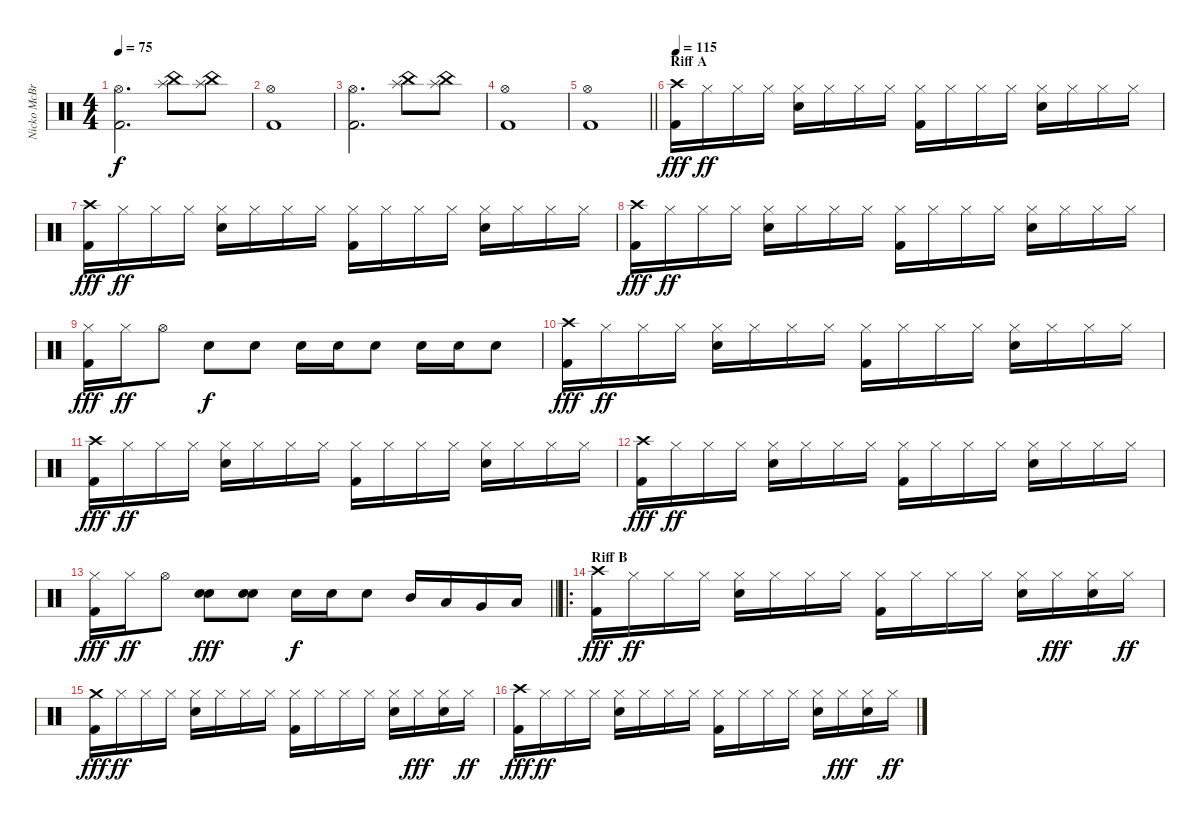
\track ("Nicko McBrain" "Nicko McBr") {instrument percussion}
\staff {score}
\articulation defaults
\ts (4 4)
\tempo 75
\clef neutral
\ks c
("Kick (hit) 2" "Hi-Hat (open)").2{d dy f} ("China (hit)" "Splash (hit)").8 ("China (hit)" "Splash (hit)").8 |
("Kick (hit) 2" "Hi-Hat (open)").1 |
("Kick (hit) 2" "Hi-Hat (open)").2{d} ("China (hit)" "Splash (hit)").8 ("China (hit)" "Splash (hit)").8 |
("Kick (hit) 2" "Hi-Hat (open)").1 |
\barLineRight lightlight
("Kick (hit) 2" "Hi-Hat (open)").1 |
\section ("" "Riff A")
\tempo 115
("Kick (hit) 2" "Crash high (hit)").16{dy fff} "Hi-Hat (closed)".16{dy ff} "Hi-Hat (closed)".16 "Hi-Hat (closed)".16 ("Snare (hit) 2" "Hi-Hat (closed)").16 "Hi-Hat (closed)".16 "Hi-Hat (closed)".16 "Hi-Hat (closed)".16 ("Kick (hit) 2" "Hi-Hat (closed)").16 "Hi-Hat (closed)".16 "Hi-Hat (closed)".16 "Hi-Hat (closed)".16 ("Snare (hit) 2" "Hi-Hat (closed)").16 "Hi-Hat (closed)".16 "Hi-Hat (closed)".16 "Hi-Hat (closed)".16 |
("Kick (hit) 2" "Crash high (hit)").16{dy fff} "Hi-Hat (closed)".16{dy ff} "Hi-Hat (closed)".16 "Hi-Hat (closed)".16 ("Snare (hit) 2" "Hi-Hat (closed)").16 "Hi-Hat (closed)".16 "Hi-Hat (closed)".16 "Hi-Hat (closed)".16 ("Kick (hit) 2" "Hi-Hat (closed)").16 "Hi-Hat (closed)".16 "Hi-Hat (closed)".16 "Hi-Hat (closed)".16 ("Snare (hit) 2" "Hi-Hat (closed)").16 "Hi-Hat (closed)".16 "Hi-Hat (closed)".16 "Hi-Hat (closed)".16 |
("Kick (hit) 2" "Crash high (hit)").16{dy fff} "Hi-Hat (closed)".16{dy ff} "Hi-Hat (closed)".16 "Hi-Hat (closed)".16 ("Snare (hit) 2" "Hi-Hat (closed)").16 "Hi-Hat (closed)".16 "Hi-Hat (closed)".16 "Hi-Hat (closed)".16 ("Kick (hit) 2" "Hi-Hat (closed)").16 "Hi-Hat (closed)".16 "Hi-Hat (closed)".16 "Hi-Hat (closed)".16 ("Snare (hit) 2" "Hi-Hat (closed)").16 "Hi-Hat (closed)".16 "Hi-Hat (closed)".16 "Hi-Hat (closed)".16 |
("Kick (hit) 2" "Hi-Hat (closed)").16{dy fff} "Hi-Hat (closed)".16{dy ff} "Hi-Hat (open)".8 "Snare (hit) 2".8{dy f} "Snare (hit) 2".8 "Snare (hit) 2".16 "Snare (hit) 2".16 "Snare (hit) 2".8 "Snare (hit) 2".16 "Snare (hit) 2".16 "Snare (hit) 2".8 |
("Kick (hit) 2" "Crash high (hit)").16{dy fff} "Hi-Hat (closed)".16{dy ff} "Hi-Hat (closed)".16 "Hi-Hat (closed)".16 ("Snare (hit) 2" "Hi-Hat (closed)").16 "Hi-Hat (closed)".16 "Hi-Hat (closed)".16 "Hi-Hat (closed)".16 ("Kick (hit) 2" "Hi-Hat (closed)").16 "Hi-Hat (closed)".16 "Hi-Hat (closed)".16 "Hi-Hat (closed)".16 ("Snare (hit) 2" "Hi-Hat (closed)").16 "Hi-Hat (closed)".16 "Hi-Hat (closed)".16 "Hi-Hat (closed)".16 |
("Kick (hit) 2" "Crash high (hit)").16{dy fff} "Hi-Hat (closed)".16{dy ff} "Hi-Hat (closed)".16 "Hi-Hat (closed)".16 ("Snare (hit) 2" "Hi-Hat (closed)").16 "Hi-Hat (closed)".16 "Hi-Hat (closed)".16 "Hi-Hat (closed)".16 ("Kick (hit) 2" "Hi-Hat (closed)").16 "Hi-Hat (closed)".16 "Hi-Hat (closed)".16 "Hi-Hat (closed)".16 ("Snare (hit) 2" "Hi-Hat (closed)").16 "Hi-Hat (closed)".16 "Hi-Hat (closed)".16 "Hi-Hat (closed)".16 |
("Kick (hit) 2" "Crash high (hit)").16{dy fff} "Hi-Hat (closed)".16{dy ff} "Hi-Hat (closed)".16 "Hi-Hat (closed)".16 ("Snare (hit) 2" "Hi-Hat (closed)").16 "Hi-Hat (closed)".16 "Hi-Hat (closed)".16 "Hi-Hat (closed)".16 ("Kick (hit) 2" "Hi-Hat (closed)").16 "Hi-Hat (closed)".16 "Hi-Hat (closed)".16 "Hi-Hat (closed)".16 ("Snare (hit) 2" "Hi-Hat (closed)").16 "Hi-Hat (closed)".16 "Hi-Hat (closed)".16 "Hi-Hat (closed)".16 |
\barLineRight lightlight
("Kick (hit) 2" "Hi-Hat (closed)").16{dy fff} "Hi-Hat (closed)".16{dy ff} "Hi-Hat (open)".8 ("Snare (hit) 2" "Electric Snare (hit)").8{dy fff} ("Snare (hit) 2" "Electric Snare (hit)").8 "Snare (hit) 2".16{dy f} "Snare (hit) 2".16 "Snare (hit) 2".8 "Mid Tom (hit)".16 "Low Tom (hit)".16 "Very Low Tom (hit)".16 "Low Floor Tom (hit)".16 |
\ro
\section ("" "Riff B")
("Kick (hit) 2" "Crash high (hit)").16{dy fff} "Hi-Hat (closed)".16{dy ff} "Hi-Hat (closed)".16 "Hi-Hat (closed)".16 ("Snare (hit) 2" "Hi-Hat (closed)").16 "Hi-Hat (closed)".16 "Hi-Hat (closed)".16 "Hi-Hat (closed)".16 ("Kick (hit) 2" "Hi-Hat (closed)").16 "Hi-Hat (closed)".16 "Hi-Hat (closed)".16 "Hi-Hat (closed)".16 ("Snare (hit) 2" "Hi-Hat (closed)").16 "Hi-Hat (closed)".16{dy fff} ("Snare (hit) 2" "Hi-Hat (closed)").16 "Hi-Hat (closed)".16{dy ff} |
("Kick (hit) 2" "Crash medium (hit)").16{dy fff} "Hi-Hat (closed)".16{dy ff} "Hi-Hat (closed)".16 "Hi-Hat (closed)".16 ("Snare (hit) 2" "Hi-Hat (closed)").16 "Hi-Hat (closed)".16 "Hi-Hat (closed)".16 "Hi-Hat (closed)".16 ("Kick (hit) 2" "Hi-Hat (closed)").16 "Hi-Hat (closed)".16 "Hi-Hat (closed)".16 "Hi-Hat (closed)".16 ("Snare (hit) 2" "Hi-Hat (closed)").16 "Hi-Hat (closed)".16{dy fff} ("Snare (hit) 2" "Hi-Hat (closed)").16 "Hi-Hat (closed)".16{dy ff} |
("Kick (hit) 2" "Crash high (hit)").16{dy fff} "Hi-Hat (closed)".16{dy ff} "Hi-Hat (closed)".16 "Hi-Hat (closed)".16 ("Snare (hit) 2" "Hi-Hat (closed)").16 "Hi-Hat (closed)".16 "Hi-Hat (closed)".16 "Hi-Hat (closed)".16 ("Kick (hit) 2" "Hi-Hat (closed)").16 "Hi-Hat (closed)".16 "Hi-Hat (closed)".16 "Hi-Hat (closed)".16 ("Snare (hit) 2" "Hi-Hat (closed)").16 "Hi-Hat (closed)".16{dy fff} ("Snare (hit) 2" "Hi-Hat (closed)").16 "Hi-Hat (closed)".16{dy ff}
